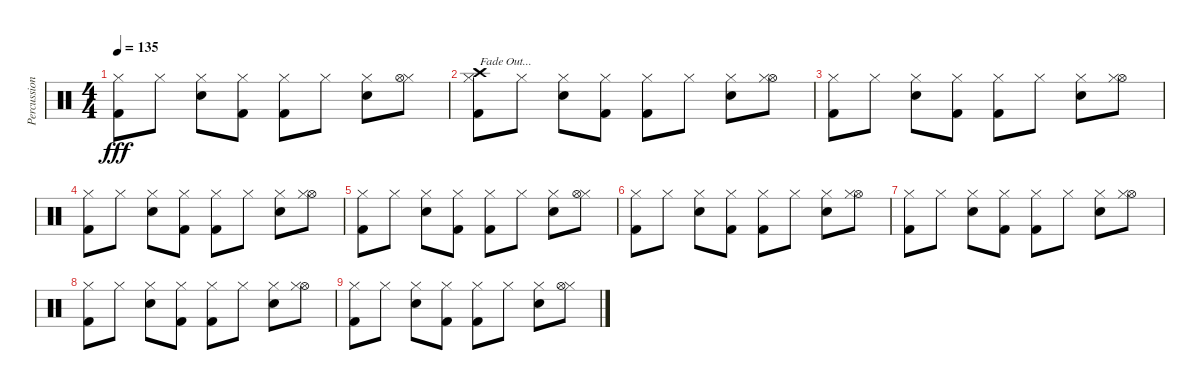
\track ("Percussion" "Percussion") {instrument percussion}
\staff {score}
\articulation defaults
\ts (4 4)
\tempo 135
\clef neutral
\ks c
("Hi-Hat (closed)" "Kick (hit) 2").8{dy fff} "Hi-Hat (closed)".8 ("Hi-Hat (closed)" "Snare (hit) 2").8 ("Kick (hit) 2" "Hi-Hat (closed)").8 ("Hi-Hat (closed)" "Kick (hit) 2").8 "Hi-Hat (closed)".8 ("Snare (hit) 2" "Hi-Hat (closed)").8 ("Hi-Hat (closed)" "Hi-Hat (open)").8 |
("Crash high (hit)" "Hi-Hat (closed)" "Kick (hit) 2").8{txt "Fade Out..."} "Hi-Hat (closed)".8 ("Hi-Hat (closed)" "Snare (hit) 2").8 ("Hi-Hat (closed)" "Kick (hit) 2").8{volume 11} ("Hi-Hat (closed)" "Kick (hit) 2").8 "Hi-Hat (closed)".8 ("Snare (hit) 2" "Hi-Hat (closed)").8 ("Hi-Hat (open)" "Hi-Hat (closed)").8 |
("Hi-Hat (closed)" "Kick (hit) 2").8{volume 10} "Hi-Hat (closed)".8 ("Hi-Hat (closed)" "Snare (hit) 2").8 ("Kick (hit) 2" "Hi-Hat (closed)").8 ("Hi-Hat (closed)" "Kick (hit) 2").8 "Hi-Hat (closed)".8 ("Hi-Hat (closed)" "Snare (hit) 2").8{volume 9} ("Hi-Hat (open)" "Hi-Hat (closed)").8 |
("Hi-Hat (closed)" "Kick (hit) 2").8 "Hi-Hat (closed)".8 ("Snare (hit) 2" "Hi-Hat (closed)").8 ("Hi-Hat (closed)" "Kick (hit) 2").8{volume 8} ("Hi-Hat (closed)" "Kick (hit) 2").8 "Hi-Hat (closed)".8 ("Hi-Hat (closed)" "Snare (hit) 2").8 ("Hi-Hat (open)" "Hi-Hat (closed)").8 |
("Hi-Hat (closed)" "Kick (hit) 2").8{volume 7} "Hi-Hat (closed)".8 ("Hi-Hat (closed)" "Snare (hit) 2").8 ("Kick (hit) 2" "Hi-Hat (closed)").8 ("Hi-Hat (closed)" "Kick (hit) 2").8{volume 6} "Hi-Hat (closed)".8 ("Snare (hit) 2" "Hi-Hat (closed)").8 ("Hi-Hat (closed)" "Hi-Hat (open)").8 |
("Hi-Hat (closed)" "Kick (hit) 2").8{volume 5} "Hi-Hat (closed)".8 ("Hi-Hat (closed)" "Snare (hit) 2").8 ("Hi-Hat (closed)" "Kick (hit) 2").8 ("Hi-Hat (closed)" "Kick (hit) 2").8 "Hi-Hat (closed)".8 ("Snare (hit) 2" "Hi-Hat (closed)").8 ("Hi-Hat (open)" "Hi-Hat (closed)").8 |
("Hi-Hat (closed)" "Kick (hit) 2").8 "Hi-Hat (closed)".8 ("Hi-Hat (closed)" "Snare (hit) 2").8 ("Kick (hit) 2" "Hi-Hat (closed)").8 ("Hi-Hat (closed)" "Kick (hit) 2").8{volume 4} "Hi-Hat (closed)".8 ("Hi-Hat (closed)" "Snare (hit) 2").8 ("Hi-Hat (open)" "Hi-Hat (closed)").8 |
("Hi-Hat (closed)" "Kick (hit) 2").8 "Hi-Hat (closed)".8 ("Snare (hit) 2" "Hi-Hat (closed)").8{volume 3} ("Hi-Hat (closed)" "Kick (hit) 2").8 ("Hi-Hat (closed)" "Kick (hit) 2").8 "Hi-Hat (closed)".8 ("Hi-Hat (closed)" "Snare (hit) 2").8 ("Hi-Hat (open)" "Hi-Hat (closed)").8 |
("Hi-Hat (closed)" "Kick (hit) 2").8 "Hi-Hat (closed)".8 ("Hi-Hat (closed)" "Snare (hit) 2").8 ("Kick (hit) 2" "Hi-Hat (closed)").8{volume 2} ("Hi-Hat (closed)" "Kick (hit) 2").8 "Hi-Hat (closed)".8 ("Snare (hit) 2" "Hi-Hat (closed)").8 ("Hi-Hat (closed)" "Hi-Hat (open)").8
